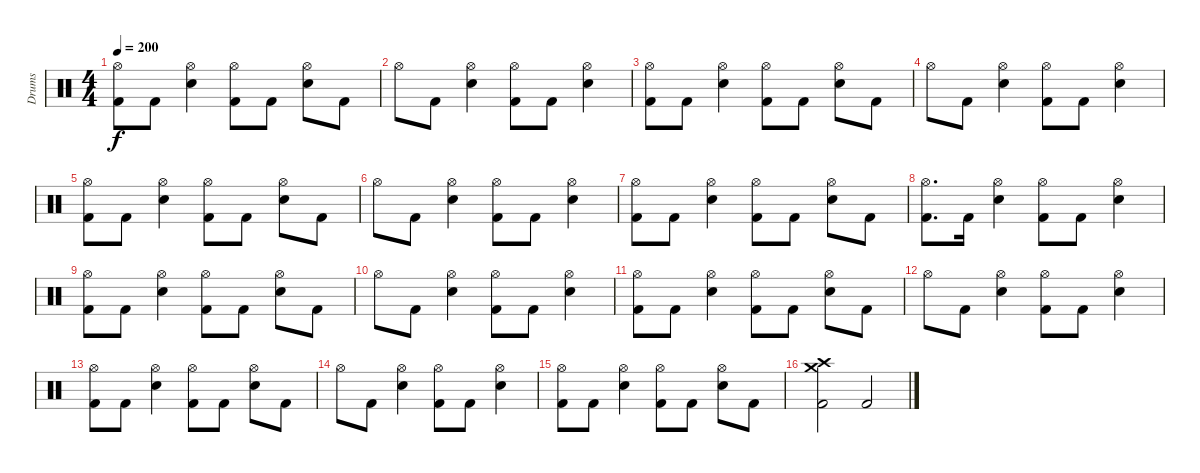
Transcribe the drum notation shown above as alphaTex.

\track ("Drums" "Drums") {instrument percussion}
\staff {score}
\articulation defaults
\ts (4 4)
\tempo 200
\clef neutral
\ks c
("Hi-Hat (open)" "Kick (hit) 2").8{dy f} "Kick (hit) 2".8 ("Hi-Hat (open)" "Electric Snare (hit)").4 ("Hi-Hat (open)" "Kick (hit) 2").8 "Kick (hit) 2".8 ("Hi-Hat (open)" "Electric Snare (hit)").8 "Kick (hit) 2".8 |
"Hi-Hat (open)".8 "Kick (hit) 2".8 ("Hi-Hat (open)" "Electric Snare (hit)").4 ("Hi-Hat (open)" "Kick (hit) 2").8 "Kick (hit) 2".8 ("Hi-Hat (open)" "Electric Snare (hit)").4 |
("Hi-Hat (open)" "Kick (hit) 2").8 "Kick (hit) 2".8 ("Hi-Hat (open)" "Electric Snare (hit)").4 ("Hi-Hat (open)" "Kick (hit) 2").8 "Kick (hit) 2".8 ("Hi-Hat (open)" "Electric Snare (hit)").8 "Kick (hit) 2".8 |
"Hi-Hat (open)".8 "Kick (hit) 2".8 ("Hi-Hat (open)" "Electric Snare (hit)").4 ("Hi-Hat (open)" "Kick (hit) 2").8 "Kick (hit) 2".8 ("Hi-Hat (open)" "Electric Snare (hit)").4 |
("Hi-Hat (open)" "Kick (hit) 2").8 "Kick (hit) 2".8 ("Hi-Hat (open)" "Electric Snare (hit)").4 ("Hi-Hat (open)" "Kick (hit) 2").8 "Kick (hit) 2".8 ("Hi-Hat (open)" "Electric Snare (hit)").8 "Kick (hit) 2".8 |
"Hi-Hat (open)".8 "Kick (hit) 2".8 ("Hi-Hat (open)" "Electric Snare (hit)").4 ("Hi-Hat (open)" "Kick (hit) 2").8 "Kick (hit) 2".8 ("Hi-Hat (open)" "Electric Snare (hit)").4 |
("Hi-Hat (open)" "Kick (hit) 2").8 "Kick (hit) 2".8 ("Hi-Hat (open)" "Electric Snare (hit)").4 ("Hi-Hat (open)" "Kick (hit) 2").8 "Kick (hit) 2".8 ("Hi-Hat (open)" "Electric Snare (hit)").8 "Kick (hit) 2".8 |
("Hi-Hat (open)" "Kick (hit) 2").8{d} "Kick (hit) 2".16 ("Hi-Hat (open)" "Electric Snare (hit)").4 ("Hi-Hat (open)" "Kick (hit) 2").8 "Kick (hit) 2".8 ("Hi-Hat (open)" "Electric Snare (hit)").4 |
("Hi-Hat (open)" "Kick (hit) 2").8 "Kick (hit) 2".8 ("Hi-Hat (open)" "Electric Snare (hit)").4 ("Hi-Hat (open)" "Kick (hit) 2").8 "Kick (hit) 2".8 ("Hi-Hat (open)" "Electric Snare (hit)").8 "Kick (hit) 2".8 |
"Hi-Hat (open)".8 "Kick (hit) 2".8 ("Hi-Hat (open)" "Electric Snare (hit)").4 ("Hi-Hat (open)" "Kick (hit) 2").8 "Kick (hit) 2".8 ("Hi-Hat (open)" "Electric Snare (hit)").4 |
("Hi-Hat (open)" "Kick (hit) 2").8 "Kick (hit) 2".8 ("Hi-Hat (open)" "Electric Snare (hit)").4 ("Hi-Hat (open)" "Kick (hit) 2").8 "Kick (hit) 2".8 ("Hi-Hat (open)" "Electric Snare (hit)").8 "Kick (hit) 2".8 |
"Hi-Hat (open)".8 "Kick (hit) 2".8 ("Hi-Hat (open)" "Electric Snare (hit)").4 ("Hi-Hat (open)" "Kick (hit) 2").8 "Kick (hit) 2".8 ("Hi-Hat (open)" "Electric Snare (hit)").4 |
("Hi-Hat (open)" "Kick (hit) 2").8 "Kick (hit) 2".8 ("Hi-Hat (open)" "Electric Snare (hit)").4 ("Hi-Hat (open)" "Kick (hit) 2").8 "Kick (hit) 2".8 ("Hi-Hat (open)" "Electric Snare (hit)").8 "Kick (hit) 2".8 |
"Hi-Hat (open)".8 "Kick (hit) 2".8 ("Hi-Hat (open)" "Electric Snare (hit)").4 ("Hi-Hat (open)" "Kick (hit) 2").8 "Kick (hit) 2".8 ("Hi-Hat (open)" "Electric Snare (hit)").4 |
("Hi-Hat (open)" "Kick (hit) 2").8 "Kick (hit) 2".8 ("Hi-Hat (open)" "Electric Snare (hit)").4 ("Hi-Hat (open)" "Kick (hit) 2").8 "Kick (hit) 2".8 ("Hi-Hat (open)" "Electric Snare (hit)").8 "Kick (hit) 2".8 |
("Crash high (hit)" "Crash medium (hit)" "Kick (hit) 2").2 "Kick (hit) 2".2
